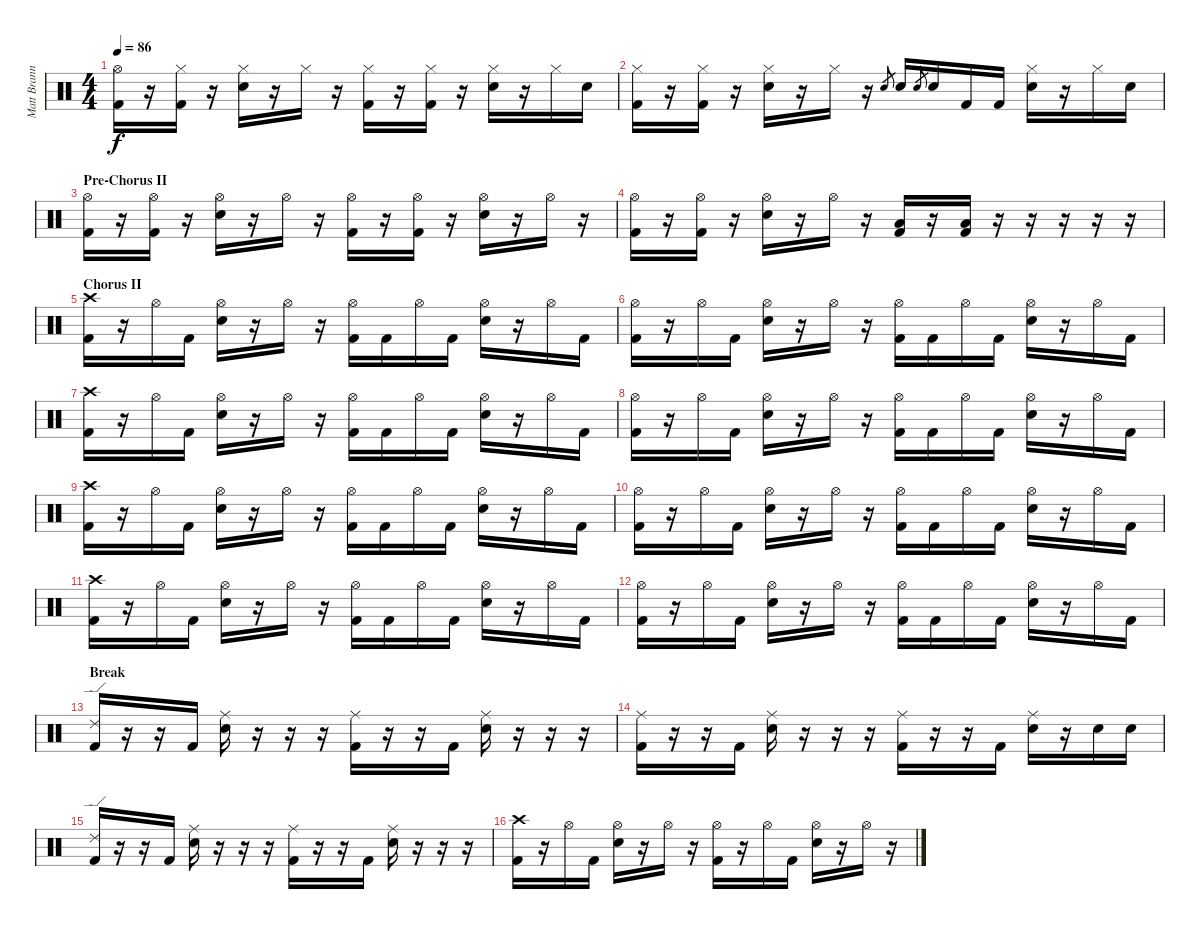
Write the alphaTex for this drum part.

\track ("Matt Brann - Drums" "Matt Brann") {instrument percussion}
\staff {score}
\articulation defaults
\ts (4 4)
\tempo 86
\clef neutral
\ks c
("Hi-Hat (open)" "Kick (hit) 2").16{dy f} r.16 ("Hi-Hat (closed)" "Kick (hit) 2").16 r.16 ("Hi-Hat (closed)" "Electric Snare (hit)").16 r.16 "Hi-Hat (closed)".16 r.16 ("Hi-Hat (closed)" "Kick (hit) 2").16 r.16 ("Hi-Hat (closed)" "Kick (hit) 2").16 r.16 ("Hi-Hat (closed)" "Electric Snare (hit)").16 r.16 "Hi-Hat (closed)".16 "Electric Snare (hit)".16 |
("Hi-Hat (closed)" "Kick (hit) 2").16 r.16 ("Hi-Hat (closed)" "Kick (hit) 2").16 r.16 ("Hi-Hat (closed)" "Electric Snare (hit)").16 r.16 "Hi-Hat (closed)".16 r.16 "Electric Snare (hit)".8{gr} "Electric Snare (hit)".16 "Electric Snare (hit)".8{gr} "Electric Snare (hit)".16 "Kick (hit) 2".16 "Kick (hit) 2".16 ("Hi-Hat (closed)" "Electric Snare (hit)").16 r.16 "Hi-Hat (closed)".16 "Electric Snare (hit)".16 |
\section ("" "Pre-Chorus II")
("Hi-Hat (open)" "Kick (hit) 2").16 r.16 ("Hi-Hat (open)" "Kick (hit) 2").16 r.16 ("Hi-Hat (open)" "Electric Snare (hit)").16 r.16 "Hi-Hat (open)".16 r.16 ("Hi-Hat (open)" "Kick (hit) 2").16 r.16 ("Hi-Hat (open)" "Kick (hit) 2").16 r.16 ("Hi-Hat (open)" "Electric Snare (hit)").16 r.16 "Hi-Hat (open)".16 r.16 |
("Hi-Hat (open)" "Kick (hit) 2").16 r.16 ("Hi-Hat (open)" "Kick (hit) 2").16 r.16 ("Hi-Hat (open)" "Electric Snare (hit)").16 r.16 "Hi-Hat (open)".16 r.16 ("Low Floor Tom (hit)" "Kick (hit) 2").16 r.16 ("Low Floor Tom (hit)" "Kick (hit) 2").16 r.16 r.16 r.16 r.16 r.16 |
\section ("" "Chorus II")
("Crash high (hit)" "Kick (hit) 2").16 r.16 "Hi-Hat (open)".16 "Kick (hit) 2".16 ("Hi-Hat (open)" "Electric Snare (hit)").16 r.16 "Hi-Hat (open)".16 r.16 ("Hi-Hat (open)" "Kick (hit) 2").16 "Kick (hit) 2".16 "Hi-Hat (open)".16 "Kick (hit) 2".16 ("Hi-Hat (open)" "Electric Snare (hit)").16 r.16 "Hi-Hat (open)".16 "Kick (hit) 2".16 |
("Hi-Hat (open)" "Kick (hit) 2").16 r.16 "Hi-Hat (open)".16 "Kick (hit) 2".16 ("Hi-Hat (open)" "Electric Snare (hit)").16 r.16 "Hi-Hat (open)".16 r.16 ("Hi-Hat (open)" "Kick (hit) 2").16 "Kick (hit) 2".16 "Hi-Hat (open)".16 "Kick (hit) 2".16 ("Hi-Hat (open)" "Electric Snare (hit)").16 r.16 "Hi-Hat (open)".16 "Kick (hit) 2".16 |
("Crash high (hit)" "Kick (hit) 2").16 r.16 "Hi-Hat (open)".16 "Kick (hit) 2".16 ("Hi-Hat (open)" "Electric Snare (hit)").16 r.16 "Hi-Hat (open)".16 r.16 ("Hi-Hat (open)" "Kick (hit) 2").16 "Kick (hit) 2".16 "Hi-Hat (open)".16 "Kick (hit) 2".16 ("Hi-Hat (open)" "Electric Snare (hit)").16 r.16 "Hi-Hat (open)".16 "Kick (hit) 2".16 |
("Hi-Hat (open)" "Kick (hit) 2").16 r.16 "Hi-Hat (open)".16 "Kick (hit) 2".16 ("Hi-Hat (open)" "Electric Snare (hit)").16 r.16 "Hi-Hat (open)".16 r.16 ("Hi-Hat (open)" "Kick (hit) 2").16 "Kick (hit) 2".16 "Hi-Hat (open)".16 "Kick (hit) 2".16 ("Hi-Hat (open)" "Electric Snare (hit)").16 r.16 "Hi-Hat (open)".16 "Kick (hit) 2".16 |
("Crash high (hit)" "Kick (hit) 2").16 r.16 "Hi-Hat (open)".16 "Kick (hit) 2".16 ("Hi-Hat (open)" "Electric Snare (hit)").16 r.16 "Hi-Hat (open)".16 r.16 ("Hi-Hat (open)" "Kick (hit) 2").16 "Kick (hit) 2".16 "Hi-Hat (open)".16 "Kick (hit) 2".16 ("Hi-Hat (open)" "Electric Snare (hit)").16 r.16 "Hi-Hat (open)".16 "Kick (hit) 2".16 |
("Hi-Hat (open)" "Kick (hit) 2").16 r.16 "Hi-Hat (open)".16 "Kick (hit) 2".16 ("Hi-Hat (open)" "Electric Snare (hit)").16 r.16 "Hi-Hat (open)".16 r.16 ("Hi-Hat (open)" "Kick (hit) 2").16 "Kick (hit) 2".16 "Hi-Hat (open)".16 "Kick (hit) 2".16 ("Hi-Hat (open)" "Electric Snare (hit)").16 r.16 "Hi-Hat (open)".16 "Kick (hit) 2".16 |
("Crash high (hit)" "Kick (hit) 2").16 r.16 "Hi-Hat (open)".16 "Kick (hit) 2".16 ("Hi-Hat (open)" "Electric Snare (hit)").16 r.16 "Hi-Hat (open)".16 r.16 ("Hi-Hat (open)" "Kick (hit) 2").16 "Kick (hit) 2".16 "Hi-Hat (open)".16 "Kick (hit) 2".16 ("Hi-Hat (open)" "Electric Snare (hit)").16 r.16 "Hi-Hat (open)".16 "Kick (hit) 2".16 |
("Hi-Hat (open)" "Kick (hit) 2").16 r.16 "Hi-Hat (open)".16 "Kick (hit) 2".16 ("Hi-Hat (open)" "Electric Snare (hit)").16 r.16 "Hi-Hat (open)".16 r.16 ("Hi-Hat (open)" "Kick (hit) 2").16 "Kick (hit) 2".16 "Hi-Hat (open)".16 "Kick (hit) 2".16 ("Hi-Hat (open)" "Electric Snare (hit)").16 r.16 "Hi-Hat (open)".16 "Kick (hit) 2".16 |
\section ("" "Break")
("Ride (edge) 2" "Kick (hit) 2").16 r.16 r.16 "Kick (hit) 2".16 ("Ride (middle)" "Snare (hit) 2").16 r.16 r.16 r.16 ("Ride (middle)" "Kick (hit) 2").16 r.16 r.16 "Kick (hit) 2".16 ("Ride (middle)" "Snare (hit) 2").16 r.16 r.16 r.16 |
("Ride (middle)" "Kick (hit) 2").16 r.16 r.16 "Kick (hit) 2".16 ("Ride (middle)" "Snare (hit) 2").16 r.16 r.16 r.16 ("Ride (middle)" "Kick (hit) 2").16 r.16 r.16 "Kick (hit) 2".16 ("Ride (middle)" "Snare (hit) 2").16 r.16 "Snare (hit) 2".16 "Snare (hit) 2".16 |
("Ride (edge) 2" "Kick (hit) 2").16 r.16 r.16 "Kick (hit) 2".16 ("Ride (middle)" "Snare (hit) 2").16 r.16 r.16 r.16 ("Ride (middle)" "Kick (hit) 2").16 r.16 r.16 "Kick (hit) 2".16 ("Ride (middle)" "Snare (hit) 2").16 r.16 r.16 r.16 |
("Crash high (hit)" "Kick (hit) 2").16 r.16 "Hi-Hat (open)".16 "Kick (hit) 2".16 ("Hi-Hat (open)" "Snare (hit) 2").16 r.16 "Hi-Hat (open)".16 r.16 ("Hi-Hat (open)" "Kick (hit) 2").16 r.16 "Hi-Hat (open)".16 "Kick (hit) 2".16 ("Hi-Hat (open)" "Snare (hit) 2").16 r.16 "Hi-Hat (open)".16 r.16
